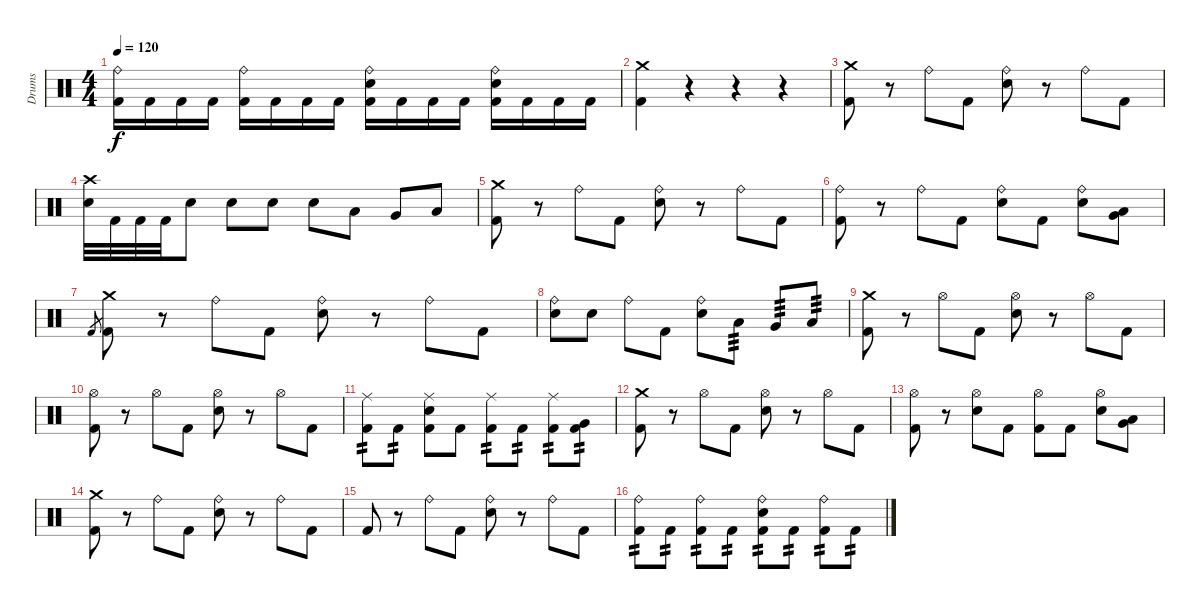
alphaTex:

\track ("Drums" "Drums") {instrument percussion}
\staff {score}
\articulation defaults
\ts (4 4)
\tempo 120
\clef neutral
\ks c
("Ride (bell)" "Kick (hit) 2").16{dy f} "Kick (hit) 2".16 "Kick (hit) 2".16 "Kick (hit) 2".16 ("Ride (bell)" "Kick (hit) 2").16 "Kick (hit) 2".16 "Kick (hit) 2".16 "Kick (hit) 2".16 ("Ride (bell)" "Electric Snare (hit)" "Kick (hit) 2").16 "Kick (hit) 2".16 "Kick (hit) 2".16 "Kick (hit) 2".16 ("Ride (bell)" "Electric Snare (hit)" "Kick (hit) 2").16 "Kick (hit) 2".16 "Kick (hit) 2".16 "Kick (hit) 2".16 |
("Crash medium (hit)" "Kick (hit) 2").4 r.4 r.4 r.4 |
("Crash medium (hit)" "Kick (hit) 2").8 r.8 "Ride (bell)".8 "Kick (hit) 2".8 ("Ride (bell)" "Electric Snare (hit)").8 r.8 "Ride (bell)".8 "Kick (hit) 2".8 |
("Crash high (hit)" "Electric Snare (hit)").32 "Kick (hit) 2".32 "Kick (hit) 2".32 "Kick (hit) 2".32 "Electric Snare (hit)".8 "Electric Snare (hit)".8 "Electric Snare (hit)".8 "Electric Snare (hit)".8 "Low Tom (hit)".8 "Very Low Tom (hit)".8 "Low Floor Tom (hit)".8 |
("Crash medium (hit)" "Kick (hit) 2").8 r.8 "Ride (bell)".8 "Kick (hit) 2".8 ("Ride (bell)" "Electric Snare (hit)").8 r.8 "Ride (bell)".8 "Kick (hit) 2".8 |
("Ride (bell)" "Kick (hit) 2").8 r.8 "Ride (bell)".8 "Kick (hit) 2".8 ("Ride (bell)" "Electric Snare (hit)").8 "Kick (hit) 2".8 ("Ride (bell)" "Electric Snare (hit)").8 ("Low Floor Tom (hit)" "Very Low Tom (hit)").8 |
"Kick (hit) 2".8{gr} ("Crash medium (hit)" "Kick (hit) 2").8 r.8 "Ride (bell)".8 "Kick (hit) 2".8 ("Ride (bell)" "Electric Snare (hit)").8 r.8 "Ride (bell)".8 "Kick (hit) 2".8 |
("Ride (bell)" "Electric Snare (hit)").8 "Electric Snare (hit)".8 "Ride (bell)".8 "Kick (hit) 2".8 ("Ride (bell)" "Electric Snare (hit)").8 "Low Tom (hit)".8{tp 3} "Very Low Tom (hit)".8{tp 3} "Low Floor Tom (hit)".8{tp 3} |
("Crash medium (hit)" "Kick (hit) 2").8 r.8 "Hi-Hat (open)".8 "Kick (hit) 2".8 ("Hi-Hat (open)" "Electric Snare (hit)").8 r.8 "Hi-Hat (open)".8 "Kick (hit) 2".8 |
("Hi-Hat (open)" "Kick (hit) 2").8 r.8 "Hi-Hat (open)".8 "Kick (hit) 2".8 ("Hi-Hat (open)" "Electric Snare (hit)").8 r.8 "Hi-Hat (open)".8 "Kick (hit) 2".8 |
("Ride (middle)" "Kick (hit) 2").8{tp 2} "Kick (hit) 2".8{tp 2} ("Electric Snare (hit)" "Ride (middle)" "Kick (hit) 2").8 "Kick (hit) 2".8 ("Ride (middle)" "Kick (hit) 2").8{tp 2} "Kick (hit) 2".8{tp 2} ("Ride (middle)" "Kick (hit) 2").8{tp 2} ("Very Low Tom (hit)" "Kick (hit) 2").8{tp 2} |
("Crash medium (hit)" "Kick (hit) 2").8 r.8 "Hi-Hat (open)".8 "Kick (hit) 2".8 ("Hi-Hat (open)" "Electric Snare (hit)").8 r.8 "Hi-Hat (open)".8 "Kick (hit) 2".8 |
("Hi-Hat (open)" "Kick (hit) 2").8 r.8 ("Hi-Hat (open)" "Electric Snare (hit)").8 "Kick (hit) 2".8 ("Hi-Hat (open)" "Kick (hit) 2").8 "Kick (hit) 2".8 ("Hi-Hat (open)" "Electric Snare (hit)").8 ("Low Floor Tom (hit)" "Very Low Tom (hit)").8 |
("Crash medium (hit)" "Kick (hit) 2").8 r.8 "Ride (bell)".8 "Kick (hit) 2".8 ("Ride (bell)" "Electric Snare (hit)").8 r.8 "Ride (bell)".8 "Kick (hit) 2".8 |
"Kick (hit) 2".8 r.8 "Ride (bell)".8 "Kick (hit) 2".8 ("Ride (bell)" "Electric Snare (hit)").8 r.8 "Ride (bell)".8 "Kick (hit) 2".8 |
("Ride (bell)" "Kick (hit) 2").8{tp 2} "Kick (hit) 2".8{tp 2} ("Ride (bell)" "Kick (hit) 2").8{tp 2} "Kick (hit) 2".8{tp 2} ("Electric Snare (hit)" "Ride (bell)" "Kick (hit) 2").8{tp 2} "Kick (hit) 2".8{tp 2} ("Ride (bell)" "Kick (hit) 2").8{tp 2} "Kick (hit) 2".8{tp 2}
